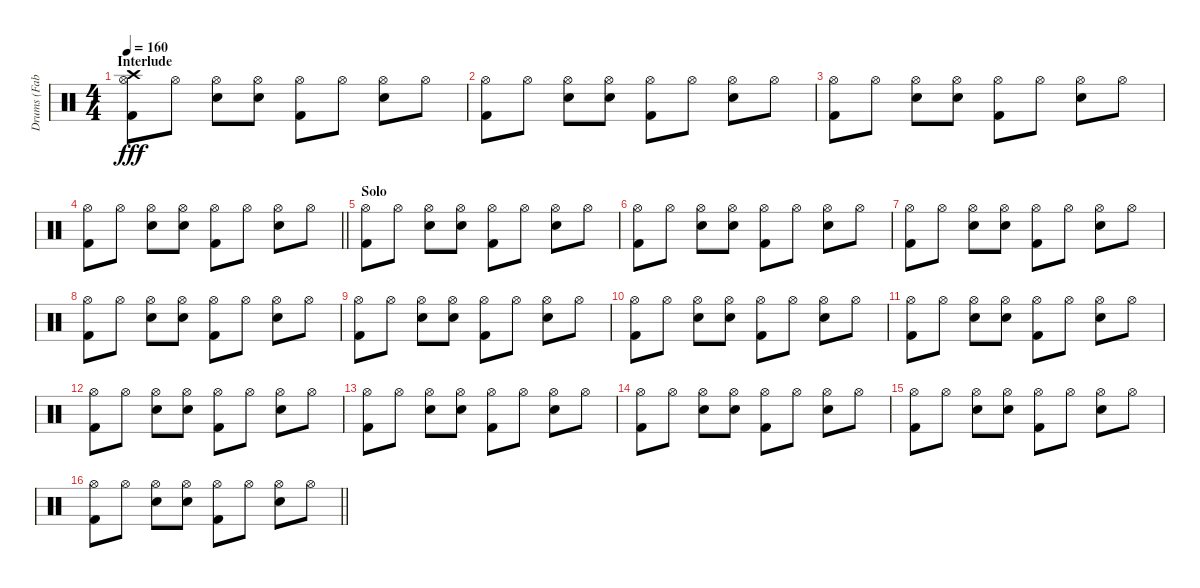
\track ("Drums (Fabrizio Moretti)" "Drums (Fab") {instrument percussion}
\staff {score}
\articulation defaults
\ts (4 4)
\section ("" "Interlude")
\tempo 160
\clef neutral
\ks c
("Kick (hit) 2" "Hi-Hat (open)" "Crash high (hit)").8{dy fff} "Hi-Hat (open)".8 ("Electric Snare (hit)" "Hi-Hat (open)").8 ("Electric Snare (hit)" "Hi-Hat (open)").8 ("Kick (hit) 2" "Hi-Hat (open)").8 "Hi-Hat (open)".8 ("Electric Snare (hit)" "Hi-Hat (open)").8 "Hi-Hat (open)".8 |
("Kick (hit) 2" "Hi-Hat (open)").8 "Hi-Hat (open)".8 ("Electric Snare (hit)" "Hi-Hat (open)").8 ("Electric Snare (hit)" "Hi-Hat (open)").8 ("Kick (hit) 2" "Hi-Hat (open)").8 "Hi-Hat (open)".8 ("Electric Snare (hit)" "Hi-Hat (open)").8 "Hi-Hat (open)".8 |
("Kick (hit) 2" "Hi-Hat (open)").8 "Hi-Hat (open)".8 ("Electric Snare (hit)" "Hi-Hat (open)").8 ("Electric Snare (hit)" "Hi-Hat (open)").8 ("Kick (hit) 2" "Hi-Hat (open)").8 "Hi-Hat (open)".8 ("Electric Snare (hit)" "Hi-Hat (open)").8 "Hi-Hat (open)".8 |
\barLineRight lightlight
("Kick (hit) 2" "Hi-Hat (open)").8 "Hi-Hat (open)".8 ("Electric Snare (hit)" "Hi-Hat (open)").8 ("Electric Snare (hit)" "Hi-Hat (open)").8 ("Kick (hit) 2" "Hi-Hat (open)").8 "Hi-Hat (open)".8 ("Electric Snare (hit)" "Hi-Hat (open)").8 "Hi-Hat (open)".8 |
\section ("" "Solo")
("Kick (hit) 2" "Hi-Hat (open)").8 "Hi-Hat (open)".8 ("Electric Snare (hit)" "Hi-Hat (open)").8 ("Electric Snare (hit)" "Hi-Hat (open)").8 ("Kick (hit) 2" "Hi-Hat (open)").8 "Hi-Hat (open)".8 ("Electric Snare (hit)" "Hi-Hat (open)").8 "Hi-Hat (open)".8 |
("Kick (hit) 2" "Hi-Hat (open)").8 "Hi-Hat (open)".8 ("Electric Snare (hit)" "Hi-Hat (open)").8 ("Electric Snare (hit)" "Hi-Hat (open)").8 ("Kick (hit) 2" "Hi-Hat (open)").8 "Hi-Hat (open)".8 ("Electric Snare (hit)" "Hi-Hat (open)").8 "Hi-Hat (open)".8 |
("Kick (hit) 2" "Hi-Hat (open)").8 "Hi-Hat (open)".8 ("Electric Snare (hit)" "Hi-Hat (open)").8 ("Electric Snare (hit)" "Hi-Hat (open)").8 ("Kick (hit) 2" "Hi-Hat (open)").8 "Hi-Hat (open)".8 ("Electric Snare (hit)" "Hi-Hat (open)").8 "Hi-Hat (open)".8 |
("Kick (hit) 2" "Hi-Hat (open)").8 "Hi-Hat (open)".8 ("Electric Snare (hit)" "Hi-Hat (open)").8 ("Electric Snare (hit)" "Hi-Hat (open)").8 ("Kick (hit) 2" "Hi-Hat (open)").8 "Hi-Hat (open)".8 ("Electric Snare (hit)" "Hi-Hat (open)").8 "Hi-Hat (open)".8 |
("Kick (hit) 2" "Hi-Hat (open)").8 "Hi-Hat (open)".8 ("Electric Snare (hit)" "Hi-Hat (open)").8 ("Electric Snare (hit)" "Hi-Hat (open)").8 ("Kick (hit) 2" "Hi-Hat (open)").8 "Hi-Hat (open)".8 ("Electric Snare (hit)" "Hi-Hat (open)").8 "Hi-Hat (open)".8 |
("Kick (hit) 2" "Hi-Hat (open)").8 "Hi-Hat (open)".8 ("Electric Snare (hit)" "Hi-Hat (open)").8 ("Electric Snare (hit)" "Hi-Hat (open)").8 ("Kick (hit) 2" "Hi-Hat (open)").8 "Hi-Hat (open)".8 ("Electric Snare (hit)" "Hi-Hat (open)").8 "Hi-Hat (open)".8 |
("Kick (hit) 2" "Hi-Hat (open)").8 "Hi-Hat (open)".8 ("Electric Snare (hit)" "Hi-Hat (open)").8 ("Electric Snare (hit)" "Hi-Hat (open)").8 ("Kick (hit) 2" "Hi-Hat (open)").8 "Hi-Hat (open)".8 ("Electric Snare (hit)" "Hi-Hat (open)").8 "Hi-Hat (open)".8 |
("Kick (hit) 2" "Hi-Hat (open)").8 "Hi-Hat (open)".8 ("Electric Snare (hit)" "Hi-Hat (open)").8 ("Electric Snare (hit)" "Hi-Hat (open)").8 ("Kick (hit) 2" "Hi-Hat (open)").8 "Hi-Hat (open)".8 ("Electric Snare (hit)" "Hi-Hat (open)").8 "Hi-Hat (open)".8 |
("Kick (hit) 2" "Hi-Hat (open)").8 "Hi-Hat (open)".8 ("Electric Snare (hit)" "Hi-Hat (open)").8 ("Electric Snare (hit)" "Hi-Hat (open)").8 ("Kick (hit) 2" "Hi-Hat (open)").8 "Hi-Hat (open)".8 ("Electric Snare (hit)" "Hi-Hat (open)").8 "Hi-Hat (open)".8 |
("Kick (hit) 2" "Hi-Hat (open)").8 "Hi-Hat (open)".8 ("Electric Snare (hit)" "Hi-Hat (open)").8 ("Electric Snare (hit)" "Hi-Hat (open)").8 ("Kick (hit) 2" "Hi-Hat (open)").8 "Hi-Hat (open)".8 ("Electric Snare (hit)" "Hi-Hat (open)").8 "Hi-Hat (open)".8 |
("Kick (hit) 2" "Hi-Hat (open)").8 "Hi-Hat (open)".8 ("Electric Snare (hit)" "Hi-Hat (open)").8 ("Electric Snare (hit)" "Hi-Hat (open)").8 ("Kick (hit) 2" "Hi-Hat (open)").8 "Hi-Hat (open)".8 ("Electric Snare (hit)" "Hi-Hat (open)").8 "Hi-Hat (open)".8 |
\barLineRight lightlight
("Kick (hit) 2" "Hi-Hat (open)").8 "Hi-Hat (open)".8 ("Electric Snare (hit)" "Hi-Hat (open)").8 ("Electric Snare (hit)" "Hi-Hat (open)").8 ("Kick (hit) 2" "Hi-Hat (open)").8 "Hi-Hat (open)".8 ("Electric Snare (hit)" "Hi-Hat (open)").8 "Hi-Hat (open)".8
